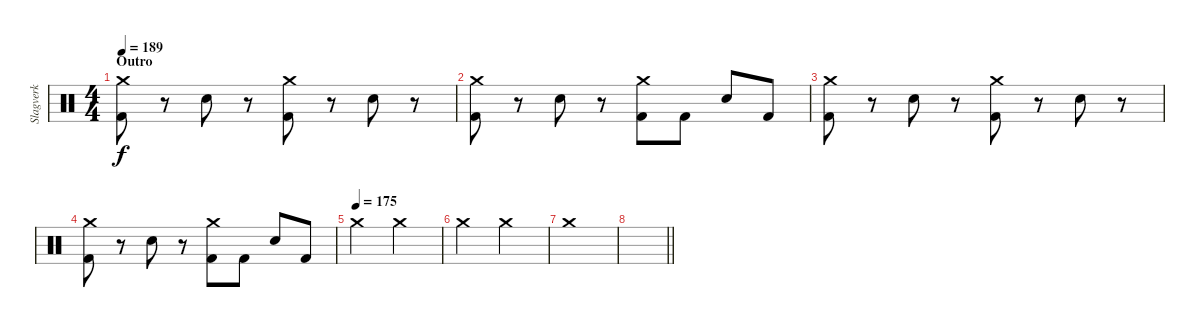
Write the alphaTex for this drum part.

\track ("Slagverk" "Slagverk") {instrument percussion}
\staff {score}
\articulation defaults
\ts (4 4)
\section ("" "Outro")
\tempo 189
\clef neutral
\ks c
("Crash medium (hit)" "Kick (hit) 2").8{dy f} r.8 "Snare (hit) 2".8 r.8 ("Crash medium (hit)" "Kick (hit) 2").8 r.8 "Snare (hit) 2".8 r.8 |
("Crash medium (hit)" "Kick (hit) 2").8 r.8 "Snare (hit) 2".8 r.8 ("Crash medium (hit)" "Kick (hit) 2").8 "Kick (hit) 2".8 "Snare (hit) 2".8 "Kick (hit) 2".8 |
("Crash medium (hit)" "Kick (hit) 2").8 r.8 "Snare (hit) 2".8 r.8 ("Crash medium (hit)" "Kick (hit) 2").8 r.8 "Snare (hit) 2".8 r.8 |
("Crash medium (hit)" "Kick (hit) 2").8 r.8 "Snare (hit) 2".8 r.8 ("Crash medium (hit)" "Kick (hit) 2").8 "Kick (hit) 2".8 "Snare (hit) 2".8 "Kick (hit) 2".8 |
\tempo (175)
"Crash medium (hit)".2 "Crash medium (hit)".2 |
"Crash medium (hit)".2 "Crash medium (hit)".2 |
"Crash medium (hit)".1 |
\barLineRight lightlight
